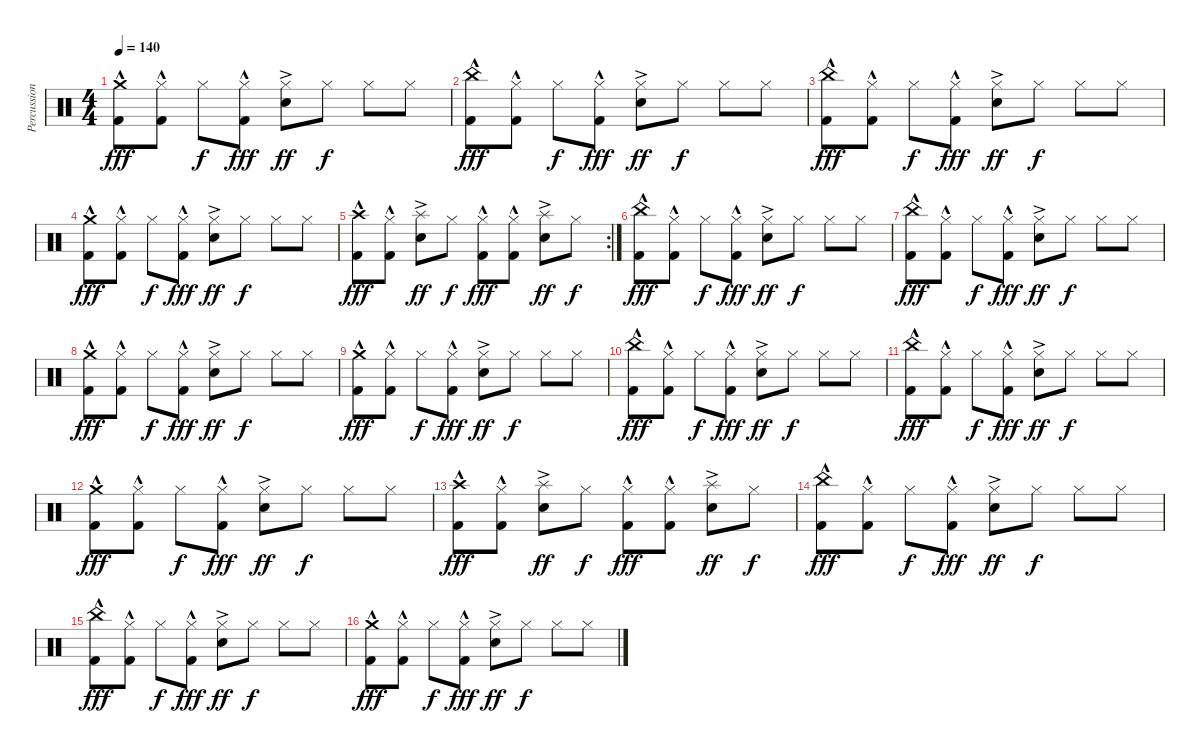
\track ("Percussion" "Percussion") {instrument percussion}
\staff {score}
\articulation defaults
\ts (4 4)
\tempo 140
\clef neutral
\ks c
("Crash medium (hit)" "Kick (hit) 2"{hac}).8{dy fff} ("Hi-Hat (closed)" "Kick (hit) 2"{hac}).8 "Hi-Hat (closed)".8{dy f} ("Hi-Hat (closed)" "Kick (hit) 2"{hac}).8{dy fff} ("Hi-Hat (closed)" "Snare (hit) 2"{ac}).8{dy ff} "Hi-Hat (closed)".8{dy f} "Hi-Hat (closed)".8 "Hi-Hat (closed)".8 |
("China (hit)" "Kick (hit) 2"{hac}).8{dy fff} ("Hi-Hat (closed)" "Kick (hit) 2"{hac}).8 "Hi-Hat (closed)".8{dy f} ("Hi-Hat (closed)" "Kick (hit) 2"{hac}).8{dy fff} ("Hi-Hat (closed)" "Snare (hit) 2"{ac}).8{dy ff} "Hi-Hat (closed)".8{dy f} "Hi-Hat (closed)".8 "Hi-Hat (closed)".8 |
("China (hit)" "Kick (hit) 2"{hac}).8{dy fff} ("Hi-Hat (closed)" "Kick (hit) 2"{hac}).8 "Hi-Hat (closed)".8{dy f} ("Hi-Hat (closed)" "Kick (hit) 2"{hac}).8{dy fff} ("Hi-Hat (closed)" "Snare (hit) 2"{ac}).8{dy ff} "Hi-Hat (closed)".8{dy f} "Hi-Hat (closed)".8 "Hi-Hat (closed)".8 |
("Crash medium (hit)" "Kick (hit) 2"{hac}).8{dy fff} ("Hi-Hat (closed)" "Kick (hit) 2"{hac}).8 "Hi-Hat (closed)".8{dy f} ("Hi-Hat (closed)" "Kick (hit) 2"{hac}).8{dy fff} ("Hi-Hat (closed)" "Snare (hit) 2"{ac}).8{dy ff} "Hi-Hat (closed)".8{dy f} "Hi-Hat (closed)".8 "Hi-Hat (closed)".8 |
\rc 2
("Crash high (hit)" "Kick (hit) 2"{hac}).8{dy fff} ("Hi-Hat (closed)" "Kick (hit) 2"{hac}).8 ("Splash (hit)" "Snare (hit) 2"{ac}).8{dy ff} "Hi-Hat (closed)".8{dy f} ("Hi-Hat (closed)" "Kick (hit) 2"{hac}).8{dy fff} ("Hi-Hat (closed)" "Kick (hit) 2"{hac}).8 ("Splash (hit)" "Snare (hit) 2"{ac}).8{dy ff} "Hi-Hat (closed)".8{dy f} |
("China (hit)" "Kick (hit) 2"{hac}).8{dy fff} ("Hi-Hat (closed)" "Kick (hit) 2"{hac}).8 "Hi-Hat (closed)".8{dy f} ("Hi-Hat (closed)" "Kick (hit) 2"{hac}).8{dy fff} ("Hi-Hat (closed)" "Snare (hit) 2"{ac}).8{dy ff} "Hi-Hat (closed)".8{dy f} "Hi-Hat (closed)".8 "Hi-Hat (closed)".8 |
("China (hit)" "Kick (hit) 2"{hac}).8{dy fff} ("Hi-Hat (closed)" "Kick (hit) 2"{hac}).8 "Hi-Hat (closed)".8{dy f} ("Hi-Hat (closed)" "Kick (hit) 2"{hac}).8{dy fff} ("Hi-Hat (closed)" "Snare (hit) 2"{ac}).8{dy ff} "Hi-Hat (closed)".8{dy f} "Hi-Hat (closed)".8 "Hi-Hat (closed)".8 |
("Crash medium (hit)" "Kick (hit) 2"{hac}).8{dy fff} ("Hi-Hat (closed)" "Kick (hit) 2"{hac}).8 "Hi-Hat (closed)".8{dy f} ("Hi-Hat (closed)" "Kick (hit) 2"{hac}).8{dy fff} ("Hi-Hat (closed)" "Snare (hit) 2"{ac}).8{dy ff} "Hi-Hat (closed)".8{dy f} "Hi-Hat (closed)".8 "Hi-Hat (closed)".8 |
("Crash medium (hit)" "Kick (hit) 2"{hac}).8{dy fff} ("Hi-Hat (closed)" "Kick (hit) 2"{hac}).8 "Hi-Hat (closed)".8{dy f} ("Hi-Hat (closed)" "Kick (hit) 2"{hac}).8{dy fff} ("Hi-Hat (closed)" "Snare (hit) 2"{ac}).8{dy ff} "Hi-Hat (closed)".8{dy f} "Hi-Hat (closed)".8 "Hi-Hat (closed)".8 |
("China (hit)" "Kick (hit) 2"{hac}).8{dy fff} ("Hi-Hat (closed)" "Kick (hit) 2"{hac}).8 "Hi-Hat (closed)".8{dy f} ("Hi-Hat (closed)" "Kick (hit) 2"{hac}).8{dy fff} ("Hi-Hat (closed)" "Snare (hit) 2"{ac}).8{dy ff} "Hi-Hat (closed)".8{dy f} "Hi-Hat (closed)".8 "Hi-Hat (closed)".8 |
("China (hit)" "Kick (hit) 2"{hac}).8{dy fff} ("Hi-Hat (closed)" "Kick (hit) 2"{hac}).8 "Hi-Hat (closed)".8{dy f} ("Hi-Hat (closed)" "Kick (hit) 2"{hac}).8{dy fff} ("Hi-Hat (closed)" "Snare (hit) 2"{ac}).8{dy ff} "Hi-Hat (closed)".8{dy f} "Hi-Hat (closed)".8 "Hi-Hat (closed)".8 |
("Crash medium (hit)" "Kick (hit) 2"{hac}).8{dy fff} ("Hi-Hat (closed)" "Kick (hit) 2"{hac}).8 "Hi-Hat (closed)".8{dy f} ("Hi-Hat (closed)" "Kick (hit) 2"{hac}).8{dy fff} ("Hi-Hat (closed)" "Snare (hit) 2"{ac}).8{dy ff} "Hi-Hat (closed)".8{dy f} "Hi-Hat (closed)".8 "Hi-Hat (closed)".8 |
("Crash high (hit)" "Kick (hit) 2"{hac}).8{dy fff} ("Hi-Hat (closed)" "Kick (hit) 2"{hac}).8 ("Splash (hit)" "Snare (hit) 2"{ac}).8{dy ff} "Hi-Hat (closed)".8{dy f} ("Hi-Hat (closed)" "Kick (hit) 2"{hac}).8{dy fff} ("Hi-Hat (closed)" "Kick (hit) 2"{hac}).8 ("Splash (hit)" "Snare (hit) 2"{ac}).8{dy ff} "Hi-Hat (closed)".8{dy f} |
("China (hit)" "Kick (hit) 2"{hac}).8{dy fff} ("Hi-Hat (closed)" "Kick (hit) 2"{hac}).8 "Hi-Hat (closed)".8{dy f} ("Hi-Hat (closed)" "Kick (hit) 2"{hac}).8{dy fff} ("Hi-Hat (closed)" "Snare (hit) 2"{ac}).8{dy ff} "Hi-Hat (closed)".8{dy f} "Hi-Hat (closed)".8 "Hi-Hat (closed)".8 |
("China (hit)" "Kick (hit) 2"{hac}).8{dy fff} ("Hi-Hat (closed)" "Kick (hit) 2"{hac}).8 "Hi-Hat (closed)".8{dy f} ("Hi-Hat (closed)" "Kick (hit) 2"{hac}).8{dy fff} ("Hi-Hat (closed)" "Snare (hit) 2"{ac}).8{dy ff} "Hi-Hat (closed)".8{dy f} "Hi-Hat (closed)".8 "Hi-Hat (closed)".8 |
("Crash medium (hit)" "Kick (hit) 2"{hac}).8{dy fff} ("Hi-Hat (closed)" "Kick (hit) 2"{hac}).8 "Hi-Hat (closed)".8{dy f} ("Hi-Hat (closed)" "Kick (hit) 2"{hac}).8{dy fff} ("Hi-Hat (closed)" "Snare (hit) 2"{ac}).8{dy ff} "Hi-Hat (closed)".8{dy f} "Hi-Hat (closed)".8 "Hi-Hat (closed)".8
